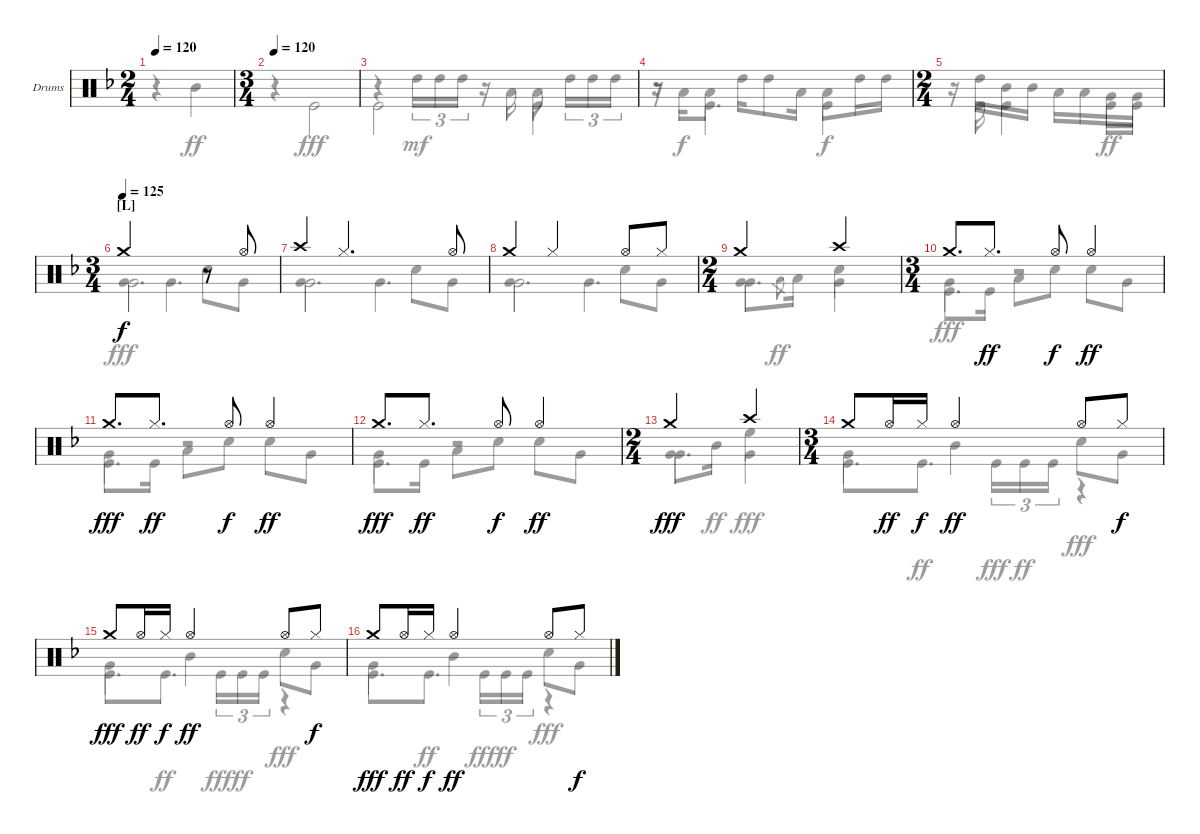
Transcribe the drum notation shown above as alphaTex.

\defaultSystemsLayout 4
\bracketExtendMode groupsimilarinstruments
\firstSystemTrackNameOrientation horizontal
\otherSystemsTrackNameOrientation horizontal
\track ("Drumkit" "Drums") {instrument percussion}
\staff {score}
\articulation defaults
\voice
\ts (2 4)
\tempo 120
\clef neutral
\ks f
|
\ts (3 4)
\tempo 120
|
|
|
\ts (2 4)
|
\ts (3 4)
\section ("L" "")
\tempo (125)
"Crash medium (hit)".2 r.8 "Hi-Hat (open)".8 |
"Crash high (hit)".4 "Hi-Hat (closed)".4{d} "Hi-Hat (open)".8 |
"Crash medium (hit)".4 "Hi-Hat (closed)".4 "Hi-Hat (open)".8 "Hi-Hat (closed)".8 |
\ts (2 4)
"Crash medium (hit)".4 "Crash high (hit)".4 |
\ts (3 4)
"Crash medium (hit)".8{d} "Hi-Hat (closed)".8{d dy ff} "Hi-Hat (open)".8{dy f} "Hi-Hat (open)".4{dy ff} |
"Crash medium (hit)".8{d dy fff} "Hi-Hat (closed)".8{d dy ff} "Hi-Hat (open)".8{dy f} "Hi-Hat (open)".4{dy ff} |
"Crash medium (hit)".8{d dy fff} "Hi-Hat (closed)".8{d dy ff} "Hi-Hat (open)".8{dy f} "Hi-Hat (open)".4{dy ff} |
\ts (2 4)
"Crash medium (hit)".4{dy fff} "Crash high (hit)".4 |
\ts (3 4)
"Crash medium (hit)".8 "Hi-Hat (open)".16{dy ff} "Hi-Hat (closed)".16{dy f} "Hi-Hat (open)".4{dy ff} "Hi-Hat (open)".8 "Hi-Hat (closed)".8{dy f} |
"Crash medium (hit)".8{dy fff} "Hi-Hat (open)".16{dy ff} "Hi-Hat (closed)".16{dy f} "Hi-Hat (open)".4{dy ff} "Hi-Hat (open)".8 "Hi-Hat (closed)".8{dy f} |
"Crash medium (hit)".8{dy fff} "Hi-Hat (open)".16{dy ff} "Hi-Hat (closed)".16{dy f} "Hi-Hat (open)".4{dy ff} "Hi-Hat (open)".8 "Hi-Hat (closed)".8{dy f}
\voice
\clef neutral
\ottava regular
\simile none
\ks f
r.4{dy ff} "Mid Tom (hit)".4 |
|
r.4 "High Tom (hit)".16{tu (3 2) dy mf} "High Tom (hit)".16{tu (3 2)} "High Tom (hit)".16{tu (3 2)} r.16 "Low Tom (hit)".16 "Low Tom (hit)".8 "High Tom (hit)".16{tu (3 2)} "High Tom (hit)".16{tu (3 2)} "High Tom (hit)".16{tu (3 2)} |
r.16 "Low Tom (hit)".16{dy f} "Low Tom (hit)".8 "High Tom (hit)".16 "High Tom (hit)".8 "Low Tom (hit)".16 "Low Tom (hit)".8 "High Tom (hit)".16 "High Tom (hit)".16 |
r.16 "High Tom (hit)".16 "Mid Tom (hit)".16 "Mid Tom (hit)".16 "Low Tom (hit)".16 "Low Tom (hit)".16 "Very Low Tom (hit)".16{dy ff} "Very Low Tom (hit)".16 |
"Very Low Tom (hit)".2{dy fff} "Snare (hit) 2".8 "Very Low Tom (hit)".8 |
"Very Low Tom (hit)".2 "Snare (hit) 2".8 "Very Low Tom (hit)".8 |
"Very Low Tom (hit)".2 "Snare (hit) 2".8 "Very Low Tom (hit)".8 |
"Very Low Tom (hit)".8{d} "Low Tom (hit)".8{gr dy ff} "Low Tom (hit)".16 "Snare (hit) 2".4 |
"Very Low Tom (hit)".4{dy fff} "Low Tom (hit)".8 "Snare (hit) 2".8 "Snare (hit) 2".8 "Very Low Tom (hit)".8 |
"Very Low Tom (hit)".4 "Low Tom (hit)".8 "Snare (hit) 2".8 "Snare (hit) 2".8 "Very Low Tom (hit)".8 |
"Very Low Tom (hit)".4 "Low Tom (hit)".8 "Snare (hit) 2".8 "Snare (hit) 2".8 "Very Low Tom (hit)".8 |
"Very Low Tom (hit)".8{d} "Mid Tom (hit)".16{dy ff} "High Floor Tom (hit)".4{dy fff} |
"Very Low Tom (hit)".4 "Mid Tom (hit)".4{dy ff} "Snare (hit) 2".8{dy fff} "Very Low Tom (hit)".8 |
"Very Low Tom (hit)".4 "Mid Tom (hit)".4{dy ff} "Snare (hit) 2".8{dy fff} "Very Low Tom (hit)".8 |
"Very Low Tom (hit)".4 "Mid Tom (hit)".4{dy ff} "Snare (hit) 2".8{dy fff} "Very Low Tom (hit)".8
\voice
\clef neutral
\ottava regular
\simile none
\ks f
|
r.4 "Kick (hit)".2 |
"Kick (hit)".2 "Kick (hit)".4 |
r.8 "Kick (hit)".4{d} "Kick (hit)".4{dy f} |
r.16 "Kick (hit)".16 "Kick (hit)".4 "Kick (hit)".16{dy ff} "Kick (hit)".16 |
"Very Low Tom (hit)".4{d dy fff} "Very Low Tom (hit)".4{d} |
"Very Low Tom (hit)".4{d} "Very Low Tom (hit)".4{d} |
"Very Low Tom (hit)".4{d} "Very Low Tom (hit)".4{d} |
"Very Low Tom (hit)".4 "Very Low Tom (hit)".4 |
"Kick (hit)".8{d} "Kick (hit)".16{dy ff} r.2 |
"Kick (hit)".8{d dy fff} "Kick (hit)".16{dy ff} r.2 |
"Kick (hit)".8{d dy fff} "Kick (hit)".16{dy ff} r.2 |
"Very Low Tom (hit)".4{dy fff} "Very Low Tom (hit)".4 |
"Kick (hit)".8{d} "Kick (hit)".8{d dy ff} "Kick (hit)".16{tu (3 2) dy fff} "Kick (hit)".16{tu (3 2) dy ff} "Kick (hit)".16{tu (3 2)} r.4 |
"Kick (hit)".8{d dy fff} "Kick (hit)".8{d dy ff} "Kick (hit)".16{tu (3 2) dy fff} "Kick (hit)".16{tu (3 2) dy ff} "Kick (hit)".16{tu (3 2)} r.4 |
"Kick (hit)".8{d dy fff} "Kick (hit)".8{d dy ff} "Kick (hit)".16{tu (3 2) dy fff} "Kick (hit)".16{tu (3 2) dy ff} "Kick (hit)".16{tu (3 2)} r.4
